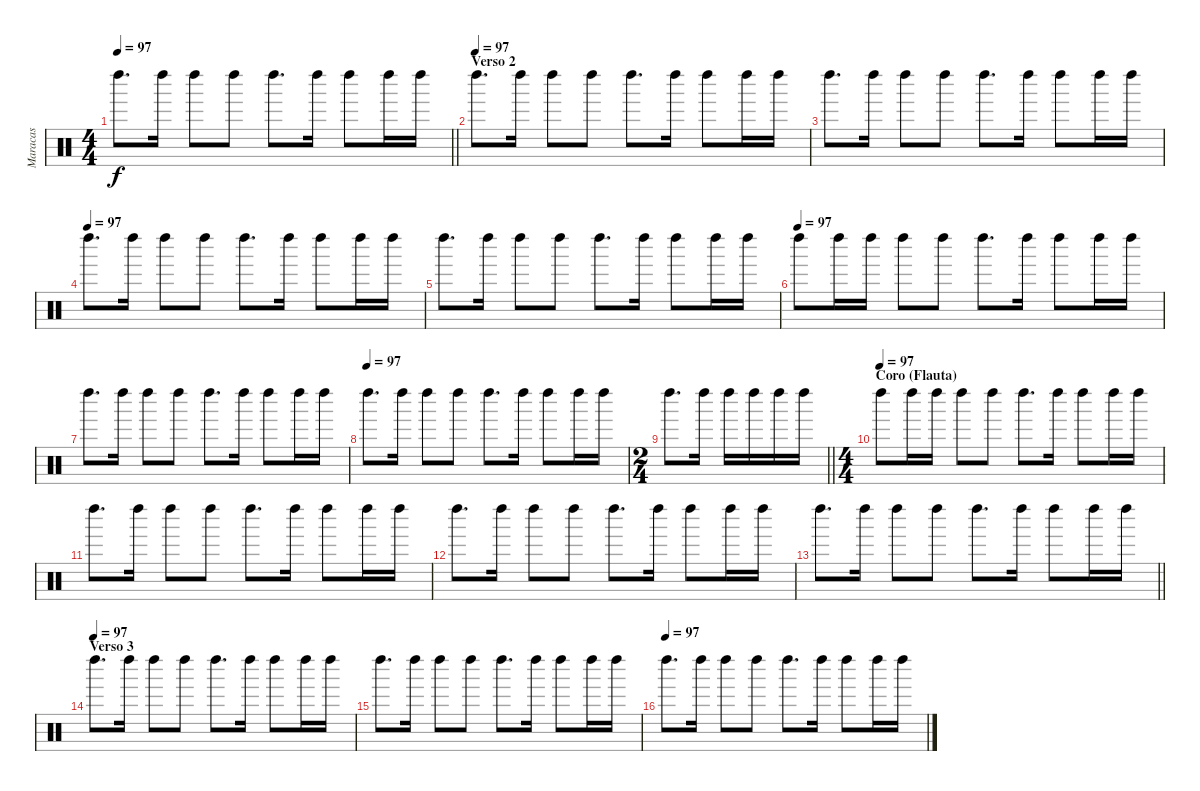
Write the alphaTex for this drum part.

\track ("Maracas" "Maracas") {instrument percussion}
\staff {score}
\articulation defaults
\ts (4 4)
\tempo 97
\clef neutral
\barLineRight lightlight
\ks c "Left Maraca (hit)".8{d dy f} "Left Maraca (hit)".16 "Left Maraca (hit)".8 "Left Maraca (hit)".8 "Left Maraca (hit)".8{d} "Left Maraca (hit)".16 "Left Maraca (hit)".8 "Left Maraca (hit)".16 "Left Maraca (hit)".16
|
\section ("" "Verso 2")
\tempo (97)
"Left Maraca (hit)".8{d} "Left Maraca (hit)".16 "Left Maraca (hit)".8 "Left Maraca (hit)".8 "Left Maraca (hit)".8{d} "Left Maraca (hit)".16 "Left Maraca (hit)".8 "Left Maraca (hit)".16 "Left Maraca (hit)".16 |
"Left Maraca (hit)".8{d} "Left Maraca (hit)".16 "Left Maraca (hit)".8 "Left Maraca (hit)".8 "Left Maraca (hit)".8{d} "Left Maraca (hit)".16 "Left Maraca (hit)".8 "Left Maraca (hit)".16 "Left Maraca (hit)".16 |
\tempo (97)
"Left Maraca (hit)".8{d} "Left Maraca (hit)".16 "Left Maraca (hit)".8 "Left Maraca (hit)".8 "Left Maraca (hit)".8{d} "Left Maraca (hit)".16 "Left Maraca (hit)".8 "Left Maraca (hit)".16 "Left Maraca (hit)".16 |
"Left Maraca (hit)".8{d} "Left Maraca (hit)".16 "Left Maraca (hit)".8 "Left Maraca (hit)".8 "Left Maraca (hit)".8{d} "Left Maraca (hit)".16 "Left Maraca (hit)".8 "Left Maraca (hit)".16 "Left Maraca (hit)".16 |
\tempo (97)
"Left Maraca (hit)".8 "Left Maraca (hit)".16 "Left Maraca (hit)".16 "Left Maraca (hit)".8 "Left Maraca (hit)".8 "Left Maraca (hit)".8{d} "Left Maraca (hit)".16 "Left Maraca (hit)".8 "Left Maraca (hit)".16 "Left Maraca (hit)".16 |
"Left Maraca (hit)".8{d} "Left Maraca (hit)".16 "Left Maraca (hit)".8 "Left Maraca (hit)".8 "Left Maraca (hit)".8{d} "Left Maraca (hit)".16 "Left Maraca (hit)".8 "Left Maraca (hit)".16 "Left Maraca (hit)".16 |
\tempo (97)
"Left Maraca (hit)".8{d} "Left Maraca (hit)".16 "Left Maraca (hit)".8 "Left Maraca (hit)".8 "Left Maraca (hit)".8{d} "Left Maraca (hit)".16 "Left Maraca (hit)".8 "Left Maraca (hit)".16 "Left Maraca (hit)".16 |
\ts (2 4)
\barLineRight lightlight "Left Maraca (hit)".8{d} "Left Maraca (hit)".16 "Left Maraca (hit)".16 "Left Maraca (hit)".16 "Left Maraca (hit)".16 "Left Maraca (hit)".16
|
\ts (4 4)
\section ("" "Coro (Flauta)")
\tempo (97)
"Left Maraca (hit)".8 "Left Maraca (hit)".16 "Left Maraca (hit)".16 "Left Maraca (hit)".8 "Left Maraca (hit)".8 "Left Maraca (hit)".8{d} "Left Maraca (hit)".16 "Left Maraca (hit)".8 "Left Maraca (hit)".16 "Left Maraca (hit)".16 |
"Left Maraca (hit)".8{d} "Left Maraca (hit)".16 "Left Maraca (hit)".8 "Left Maraca (hit)".8 "Left Maraca (hit)".8{d} "Left Maraca (hit)".16 "Left Maraca (hit)".8 "Left Maraca (hit)".16 "Left Maraca (hit)".16 |
"Left Maraca (hit)".8{d} "Left Maraca (hit)".16 "Left Maraca (hit)".8 "Left Maraca (hit)".8 "Left Maraca (hit)".8{d} "Left Maraca (hit)".16 "Left Maraca (hit)".8 "Left Maraca (hit)".16 "Left Maraca (hit)".16 |
\barLineRight lightlight "Left Maraca (hit)".8{d} "Left Maraca (hit)".16 "Left Maraca (hit)".8 "Left Maraca (hit)".8 "Left Maraca (hit)".8{d} "Left Maraca (hit)".16 "Left Maraca (hit)".8 "Left Maraca (hit)".16 "Left Maraca (hit)".16
|
\section ("" "Verso 3")
\tempo (97)
"Left Maraca (hit)".8{d} "Left Maraca (hit)".16 "Left Maraca (hit)".8 "Left Maraca (hit)".8 "Left Maraca (hit)".8{d} "Left Maraca (hit)".16 "Left Maraca (hit)".8 "Left Maraca (hit)".16 "Left Maraca (hit)".16 |
"Left Maraca (hit)".8{d} "Left Maraca (hit)".16 "Left Maraca (hit)".8 "Left Maraca (hit)".8 "Left Maraca (hit)".8{d} "Left Maraca (hit)".16 "Left Maraca (hit)".8 "Left Maraca (hit)".16 "Left Maraca (hit)".16 |
\tempo (97)
"Left Maraca (hit)".8{d} "Left Maraca (hit)".16 "Left Maraca (hit)".8 "Left Maraca (hit)".8 "Left Maraca (hit)".8{d} "Left Maraca (hit)".16 "Left Maraca (hit)".8 "Left Maraca (hit)".16 "Left Maraca (hit)".16
